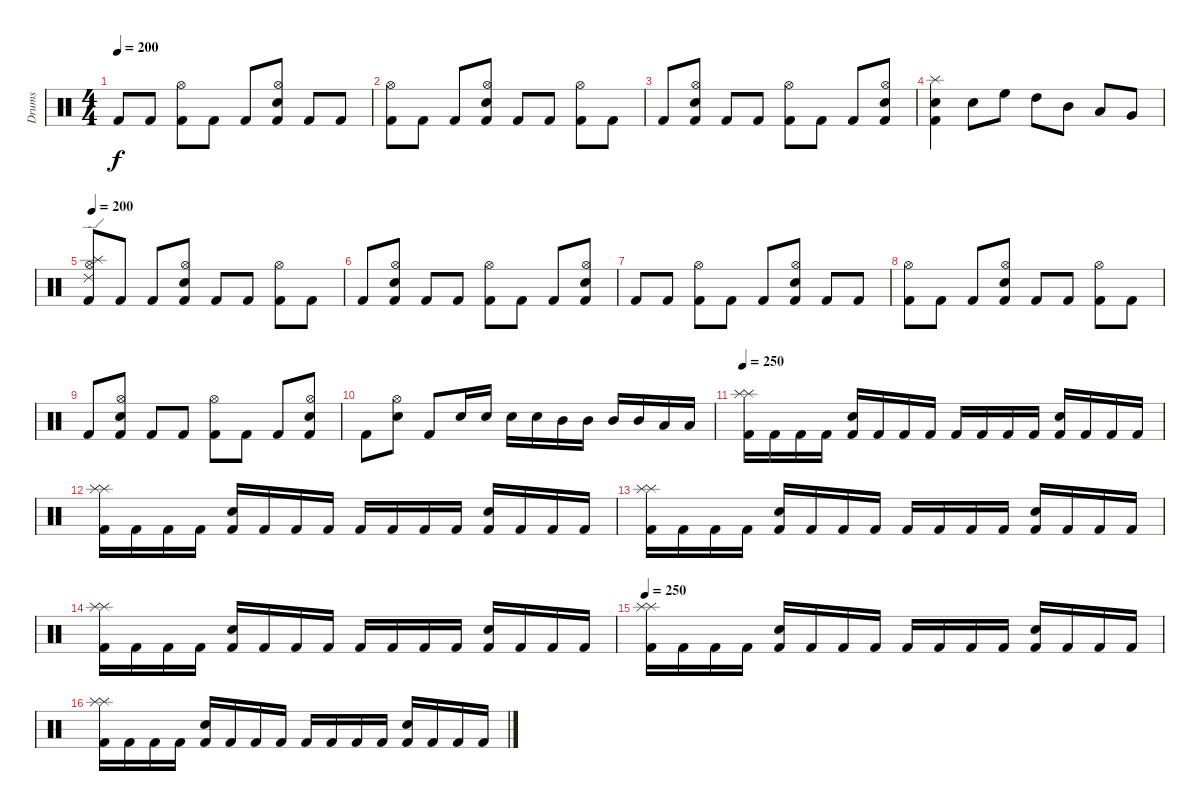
\track ("Drums" "Drums") {instrument percussion}
\staff {score}
\articulation defaults
\ts (4 4)
\tempo 200
\clef neutral
\ks c "Kick (hit) 2".8{dy f} "Kick (hit) 2".8
("Kick (hit) 2" "Hi-Hat (open)").8 "Kick (hit) 2".8 "Kick (hit) 2".8 ("Kick (hit) 2" "Electric Snare (hit)" "Hi-Hat (open)").8 "Kick (hit) 2".8 "Kick (hit) 2".8 |
("Kick (hit) 2" "Hi-Hat (open)").8 "Kick (hit) 2".8 "Kick (hit) 2".8 ("Kick (hit) 2" "Electric Snare (hit)" "Hi-Hat (open)").8 "Kick (hit) 2".8 "Kick (hit) 2".8 ("Kick (hit) 2" "Hi-Hat (open)").8 "Kick (hit) 2".8 |
"Kick (hit) 2".8 ("Kick (hit) 2" "Electric Snare (hit)" "Hi-Hat (open)").8 "Kick (hit) 2".8 "Kick (hit) 2".8 ("Kick (hit) 2" "Hi-Hat (open)").8 "Kick (hit) 2".8 "Kick (hit) 2".8 ("Kick (hit) 2" "Electric Snare (hit)" "Hi-Hat (open)").8 |
("Kick (hit) 2" "Snare (hit) 2" "Splash (hit)").4 "Snare (hit) 2".8 "High Floor Tom (hit)".8 "High Tom (hit)".8 "Mid Tom (hit)".8 "Low Tom (hit)".8 "Very Low Tom (hit)".8 |
\tempo 200
("Kick (hit) 2" "Ride (edge) 2" "Splash (hit)" "Hi-Hat (open)").8 "Kick (hit) 2".8 "Kick (hit) 2".8 ("Kick (hit) 2" "Electric Snare (hit)" "Hi-Hat (open)").8 "Kick (hit) 2".8 "Kick (hit) 2".8 ("Kick (hit) 2" "Hi-Hat (open)").8 "Kick (hit) 2".8 |
"Kick (hit) 2".8 ("Kick (hit) 2" "Electric Snare (hit)" "Hi-Hat (open)").8 "Kick (hit) 2".8 "Kick (hit) 2".8 ("Kick (hit) 2" "Hi-Hat (open)").8 "Kick (hit) 2".8 "Kick (hit) 2".8 ("Kick (hit) 2" "Electric Snare (hit)" "Hi-Hat (open)").8 |
"Kick (hit) 2".8 "Kick (hit) 2".8 ("Kick (hit) 2" "Hi-Hat (open)").8 "Kick (hit) 2".8 "Kick (hit) 2".8 ("Kick (hit) 2" "Electric Snare (hit)" "Hi-Hat (open)").8 "Kick (hit) 2".8 "Kick (hit) 2".8 |
("Kick (hit) 2" "Hi-Hat (open)").8 "Kick (hit) 2".8 "Kick (hit) 2".8 ("Kick (hit) 2" "Electric Snare (hit)" "Hi-Hat (open)").8 "Kick (hit) 2".8 "Kick (hit) 2".8 ("Kick (hit) 2" "Hi-Hat (open)").8 "Kick (hit) 2".8 |
"Kick (hit) 2".8 ("Kick (hit) 2" "Electric Snare (hit)" "Hi-Hat (open)").8 "Kick (hit) 2".8 "Kick (hit) 2".8 ("Kick (hit) 2" "Hi-Hat (open)").8 "Kick (hit) 2".8 "Kick (hit) 2".8 ("Kick (hit) 2" "Electric Snare (hit)" "Hi-Hat (open)").8 |
"Kick (hit) 2".8 ("Electric Snare (hit)" "Hi-Hat (open)").8 "Kick (hit) 2".8 "Snare (hit) 2".16 "Snare (hit) 2".16 "Snare (hit) 2".16 "Snare (hit) 2".16 "Mid Tom (hit)".16 "Mid Tom (hit)".16 "Mid Tom (hit)".16 "Mid Tom (hit)".16 "Low Tom (hit)".16 "Low Tom (hit)".16 |
\tempo 250
("Kick (hit) 2" "Splash (hit)" "Splash (hit)").16 "Kick (hit) 2".16 "Kick (hit) 2".16 "Kick (hit) 2".16 ("Kick (hit) 2" "Electric Snare (hit)").16 "Kick (hit) 2".16 "Kick (hit) 2".16 "Kick (hit) 2".16 "Kick (hit) 2".16 "Kick (hit) 2".16 "Kick (hit) 2".16 "Kick (hit) 2".16 ("Kick (hit) 2" "Electric Snare (hit)").16 "Kick (hit) 2".16 "Kick (hit) 2".16 "Kick (hit) 2".16 |
("Kick (hit) 2" "Splash (hit)" "Splash (hit)").16 "Kick (hit) 2".16 "Kick (hit) 2".16 "Kick (hit) 2".16 ("Kick (hit) 2" "Electric Snare (hit)").16 "Kick (hit) 2".16 "Kick (hit) 2".16 "Kick (hit) 2".16 "Kick (hit) 2".16 "Kick (hit) 2".16 "Kick (hit) 2".16 "Kick (hit) 2".16 ("Kick (hit) 2" "Electric Snare (hit)").16 "Kick (hit) 2".16 "Kick (hit) 2".16 "Kick (hit) 2".16 |
("Kick (hit) 2" "Splash (hit)" "Splash (hit)").16 "Kick (hit) 2".16 "Kick (hit) 2".16 "Kick (hit) 2".16 ("Kick (hit) 2" "Electric Snare (hit)").16 "Kick (hit) 2".16 "Kick (hit) 2".16 "Kick (hit) 2".16 "Kick (hit) 2".16 "Kick (hit) 2".16 "Kick (hit) 2".16 "Kick (hit) 2".16 ("Kick (hit) 2" "Electric Snare (hit)").16 "Kick (hit) 2".16 "Kick (hit) 2".16 "Kick (hit) 2".16 |
("Kick (hit) 2" "Splash (hit)" "Splash (hit)").16 "Kick (hit) 2".16 "Kick (hit) 2".16 "Kick (hit) 2".16 ("Kick (hit) 2" "Electric Snare (hit)").16 "Kick (hit) 2".16 "Kick (hit) 2".16 "Kick (hit) 2".16 "Kick (hit) 2".16 "Kick (hit) 2".16 "Kick (hit) 2".16 "Kick (hit) 2".16 ("Kick (hit) 2" "Electric Snare (hit)").16 "Kick (hit) 2".16 "Kick (hit) 2".16 "Kick (hit) 2".16 |
\tempo 250
("Kick (hit) 2" "Splash (hit)" "Splash (hit)").16 "Kick (hit) 2".16 "Kick (hit) 2".16 "Kick (hit) 2".16 ("Kick (hit) 2" "Electric Snare (hit)").16 "Kick (hit) 2".16 "Kick (hit) 2".16 "Kick (hit) 2".16 "Kick (hit) 2".16 "Kick (hit) 2".16 "Kick (hit) 2".16 "Kick (hit) 2".16 ("Kick (hit) 2" "Electric Snare (hit)").16 "Kick (hit) 2".16 "Kick (hit) 2".16 "Kick (hit) 2".16 |
("Kick (hit) 2" "Splash (hit)" "Splash (hit)").16 "Kick (hit) 2".16 "Kick (hit) 2".16 "Kick (hit) 2".16 ("Kick (hit) 2" "Electric Snare (hit)").16 "Kick (hit) 2".16 "Kick (hit) 2".16 "Kick (hit) 2".16 "Kick (hit) 2".16 "Kick (hit) 2".16 "Kick (hit) 2".16 "Kick (hit) 2".16 ("Kick (hit) 2" "Electric Snare (hit)").16 "Kick (hit) 2".16 "Kick (hit) 2".16 "Kick (hit) 2".16
